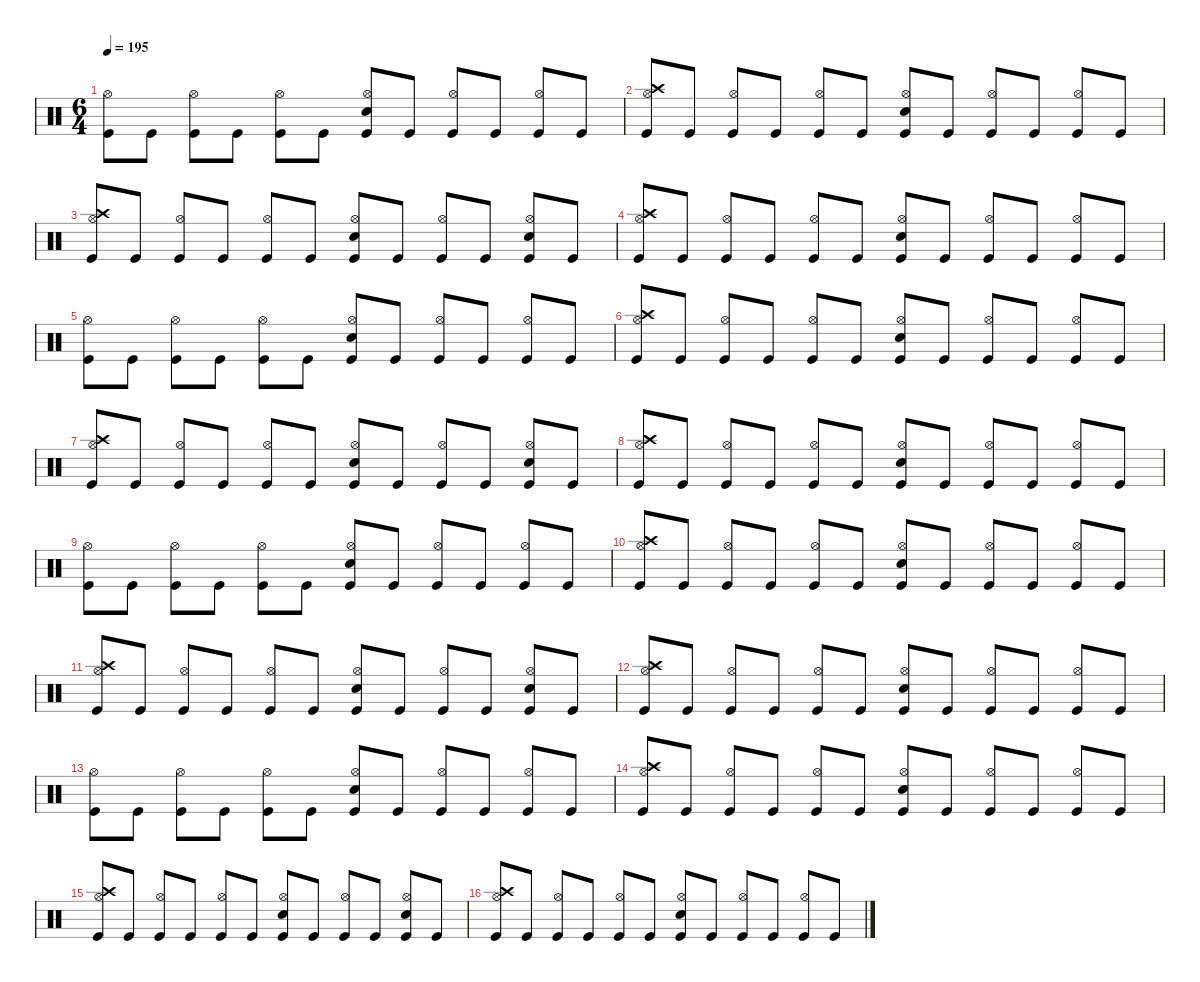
\defaultSystemsLayout 4
\hideDynamics
\bracketExtendMode nobrackets
\singleTrackTrackNamePolicy hidden
\multiTrackTrackNamePolicy hidden
\firstSystemTrackNameMode fullname
\firstSystemTrackNameOrientation horizontal
\otherSystemsTrackNameOrientation horizontal
\track ("Percussion" "drm.") {defaultSystemsLayout 2 instrument percussion}
\staff {score}
\articulation defaults
\ts (6 4)
\tempo 195
\clef neutral
\ks c
("Hi-Hat (open)" "Kick (hit)").8{dy f beam Down} "Kick (hit)".8{beam Down} ("Hi-Hat (open)" "Kick (hit)").8{beam Down} "Kick (hit)".8{beam Down} ("Hi-Hat (open)" "Kick (hit)").8{beam Down} "Kick (hit)".8{beam Down} ("Snare (hit) 2" "Hi-Hat (open)" "Kick (hit)").8{beam Up} "Kick (hit)".8{beam Up} ("Hi-Hat (open)" "Kick (hit)").8{beam Up} "Kick (hit)".8{beam Up} ("Hi-Hat (open)" "Kick (hit)").8{beam Up} "Kick (hit)".8{beam Up} |
("Crash high (hit)" "Hi-Hat (open)" "Kick (hit)").8{beam Up} "Kick (hit)".8{beam Up} ("Hi-Hat (open)" "Kick (hit)").8{beam Up} "Kick (hit)".8{beam Up} ("Hi-Hat (open)" "Kick (hit)").8{beam Up} "Kick (hit)".8{beam Up} ("Snare (hit) 2" "Hi-Hat (open)" "Kick (hit)").8{beam Up} "Kick (hit)".8{beam Up} ("Hi-Hat (open)" "Kick (hit)").8{beam Up} "Kick (hit)".8{beam Up} ("Hi-Hat (open)" "Kick (hit)").8{beam Up} "Kick (hit)".8{beam Up} |
("Crash high (hit)" "Hi-Hat (open)" "Kick (hit)").8{beam Up} "Kick (hit)".8{beam Up} ("Hi-Hat (open)" "Kick (hit)").8{beam Up} "Kick (hit)".8{beam Up} ("Hi-Hat (open)" "Kick (hit)").8{beam Up} "Kick (hit)".8{beam Up} ("Snare (hit) 2" "Hi-Hat (open)" "Kick (hit)").8{beam Up} "Kick (hit)".8{beam Up} ("Hi-Hat (open)" "Kick (hit)").8{beam Up} "Kick (hit)".8{beam Up} ("Snare (hit) 2" "Hi-Hat (open)" "Kick (hit)").8{beam Up} "Kick (hit)".8{beam Up} |
("Crash high (hit)" "Hi-Hat (open)" "Kick (hit)").8{beam Up} "Kick (hit)".8{beam Up} ("Hi-Hat (open)" "Kick (hit)").8{beam Up} "Kick (hit)".8{beam Up} ("Hi-Hat (open)" "Kick (hit)").8{beam Up} "Kick (hit)".8{beam Up} ("Snare (hit) 2" "Hi-Hat (open)" "Kick (hit)").8{beam Up} "Kick (hit)".8{beam Up} ("Hi-Hat (open)" "Kick (hit)").8{beam Up} "Kick (hit)".8{beam Up} ("Hi-Hat (open)" "Kick (hit)").8{beam Up} "Kick (hit)".8{beam Up} |
("Hi-Hat (open)" "Kick (hit)").8{beam Down} "Kick (hit)".8{beam Down} ("Hi-Hat (open)" "Kick (hit)").8{beam Down} "Kick (hit)".8{beam Down} ("Hi-Hat (open)" "Kick (hit)").8{beam Down} "Kick (hit)".8{beam Down} ("Snare (hit) 2" "Hi-Hat (open)" "Kick (hit)").8{beam Up} "Kick (hit)".8{beam Up} ("Hi-Hat (open)" "Kick (hit)").8{beam Up} "Kick (hit)".8{beam Up} ("Hi-Hat (open)" "Kick (hit)").8{beam Up} "Kick (hit)".8{beam Up} |
("Crash high (hit)" "Hi-Hat (open)" "Kick (hit)").8{beam Up} "Kick (hit)".8{beam Up} ("Hi-Hat (open)" "Kick (hit)").8{beam Up} "Kick (hit)".8{beam Up} ("Hi-Hat (open)" "Kick (hit)").8{beam Up} "Kick (hit)".8{beam Up} ("Snare (hit) 2" "Hi-Hat (open)" "Kick (hit)").8{beam Up} "Kick (hit)".8{beam Up} ("Hi-Hat (open)" "Kick (hit)").8{beam Up} "Kick (hit)".8{beam Up} ("Hi-Hat (open)" "Kick (hit)").8{beam Up} "Kick (hit)".8{beam Up} |
("Crash high (hit)" "Hi-Hat (open)" "Kick (hit)").8{beam Up} "Kick (hit)".8{beam Up} ("Hi-Hat (open)" "Kick (hit)").8{beam Up} "Kick (hit)".8{beam Up} ("Hi-Hat (open)" "Kick (hit)").8{beam Up} "Kick (hit)".8{beam Up} ("Snare (hit) 2" "Hi-Hat (open)" "Kick (hit)").8{beam Up} "Kick (hit)".8{beam Up} ("Hi-Hat (open)" "Kick (hit)").8{beam Up} "Kick (hit)".8{beam Up} ("Snare (hit) 2" "Hi-Hat (open)" "Kick (hit)").8{beam Up} "Kick (hit)".8{beam Up} |
("Crash high (hit)" "Hi-Hat (open)" "Kick (hit)").8{beam Up} "Kick (hit)".8{beam Up} ("Hi-Hat (open)" "Kick (hit)").8{beam Up} "Kick (hit)".8{beam Up} ("Hi-Hat (open)" "Kick (hit)").8{beam Up} "Kick (hit)".8{beam Up} ("Snare (hit) 2" "Hi-Hat (open)" "Kick (hit)").8{beam Up} "Kick (hit)".8{beam Up} ("Hi-Hat (open)" "Kick (hit)").8{beam Up} "Kick (hit)".8{beam Up} ("Hi-Hat (open)" "Kick (hit)").8{beam Up} "Kick (hit)".8{beam Up} |
("Hi-Hat (open)" "Kick (hit)").8{beam Down} "Kick (hit)".8{beam Down} ("Hi-Hat (open)" "Kick (hit)").8{beam Down} "Kick (hit)".8{beam Down} ("Hi-Hat (open)" "Kick (hit)").8{beam Down} "Kick (hit)".8{beam Down} ("Snare (hit) 2" "Hi-Hat (open)" "Kick (hit)").8{beam Up} "Kick (hit)".8{beam Up} ("Hi-Hat (open)" "Kick (hit)").8{beam Up} "Kick (hit)".8{beam Up} ("Hi-Hat (open)" "Kick (hit)").8{beam Up} "Kick (hit)".8{beam Up} |
("Crash high (hit)" "Hi-Hat (open)" "Kick (hit)").8{beam Up} "Kick (hit)".8{beam Up} ("Hi-Hat (open)" "Kick (hit)").8{beam Up} "Kick (hit)".8{beam Up} ("Hi-Hat (open)" "Kick (hit)").8{beam Up} "Kick (hit)".8{beam Up} ("Snare (hit) 2" "Hi-Hat (open)" "Kick (hit)").8{beam Up} "Kick (hit)".8{beam Up} ("Hi-Hat (open)" "Kick (hit)").8{beam Up} "Kick (hit)".8{beam Up} ("Hi-Hat (open)" "Kick (hit)").8{beam Up} "Kick (hit)".8{beam Up} |
("Crash high (hit)" "Hi-Hat (open)" "Kick (hit)").8{beam Up} "Kick (hit)".8{beam Up} ("Hi-Hat (open)" "Kick (hit)").8{beam Up} "Kick (hit)".8{beam Up} ("Hi-Hat (open)" "Kick (hit)").8{beam Up} "Kick (hit)".8{beam Up} ("Snare (hit) 2" "Hi-Hat (open)" "Kick (hit)").8{beam Up} "Kick (hit)".8{beam Up} ("Hi-Hat (open)" "Kick (hit)").8{beam Up} "Kick (hit)".8{beam Up} ("Snare (hit) 2" "Hi-Hat (open)" "Kick (hit)").8{beam Up} "Kick (hit)".8{beam Up} |
("Crash high (hit)" "Hi-Hat (open)" "Kick (hit)").8{beam Up} "Kick (hit)".8{beam Up} ("Hi-Hat (open)" "Kick (hit)").8{beam Up} "Kick (hit)".8{beam Up} ("Hi-Hat (open)" "Kick (hit)").8{beam Up} "Kick (hit)".8{beam Up} ("Snare (hit) 2" "Hi-Hat (open)" "Kick (hit)").8{beam Up} "Kick (hit)".8{beam Up} ("Hi-Hat (open)" "Kick (hit)").8{beam Up} "Kick (hit)".8{beam Up} ("Hi-Hat (open)" "Kick (hit)").8{beam Up} "Kick (hit)".8{beam Up} |
("Hi-Hat (open)" "Kick (hit)").8{beam Down} "Kick (hit)".8{beam Down} ("Hi-Hat (open)" "Kick (hit)").8{beam Down} "Kick (hit)".8{beam Down} ("Hi-Hat (open)" "Kick (hit)").8{beam Down} "Kick (hit)".8{beam Down} ("Snare (hit) 2" "Hi-Hat (open)" "Kick (hit)").8{beam Up} "Kick (hit)".8{beam Up} ("Hi-Hat (open)" "Kick (hit)").8{beam Up} "Kick (hit)".8{beam Up} ("Hi-Hat (open)" "Kick (hit)").8{beam Up} "Kick (hit)".8{beam Up} |
("Crash high (hit)" "Hi-Hat (open)" "Kick (hit)").8{beam Up} "Kick (hit)".8{beam Up} ("Hi-Hat (open)" "Kick (hit)").8{beam Up} "Kick (hit)".8{beam Up} ("Hi-Hat (open)" "Kick (hit)").8{beam Up} "Kick (hit)".8{beam Up} ("Snare (hit) 2" "Hi-Hat (open)" "Kick (hit)").8{beam Up} "Kick (hit)".8{beam Up} ("Hi-Hat (open)" "Kick (hit)").8{beam Up} "Kick (hit)".8{beam Up} ("Hi-Hat (open)" "Kick (hit)").8{beam Up} "Kick (hit)".8{beam Up} |
("Crash high (hit)" "Hi-Hat (open)" "Kick (hit)").8{beam Up} "Kick (hit)".8{beam Up} ("Hi-Hat (open)" "Kick (hit)").8{beam Up} "Kick (hit)".8{beam Up} ("Hi-Hat (open)" "Kick (hit)").8{beam Up} "Kick (hit)".8{beam Up} ("Snare (hit) 2" "Hi-Hat (open)" "Kick (hit)").8{beam Up} "Kick (hit)".8{beam Up} ("Hi-Hat (open)" "Kick (hit)").8{beam Up} "Kick (hit)".8{beam Up} ("Snare (hit) 2" "Hi-Hat (open)" "Kick (hit)").8{beam Up} "Kick (hit)".8{beam Up} |
("Crash high (hit)" "Hi-Hat (open)" "Kick (hit)").8{beam Up} "Kick (hit)".8{beam Up} ("Hi-Hat (open)" "Kick (hit)").8{beam Up} "Kick (hit)".8{beam Up} ("Hi-Hat (open)" "Kick (hit)").8{beam Up} "Kick (hit)".8{beam Up} ("Snare (hit) 2" "Hi-Hat (open)" "Kick (hit)").8{beam Up} "Kick (hit)".8{beam Up} ("Hi-Hat (open)" "Kick (hit)").8{beam Up} "Kick (hit)".8{beam Up} ("Hi-Hat (open)" "Kick (hit)").8{beam Up} "Kick (hit)".8{beam Up}
